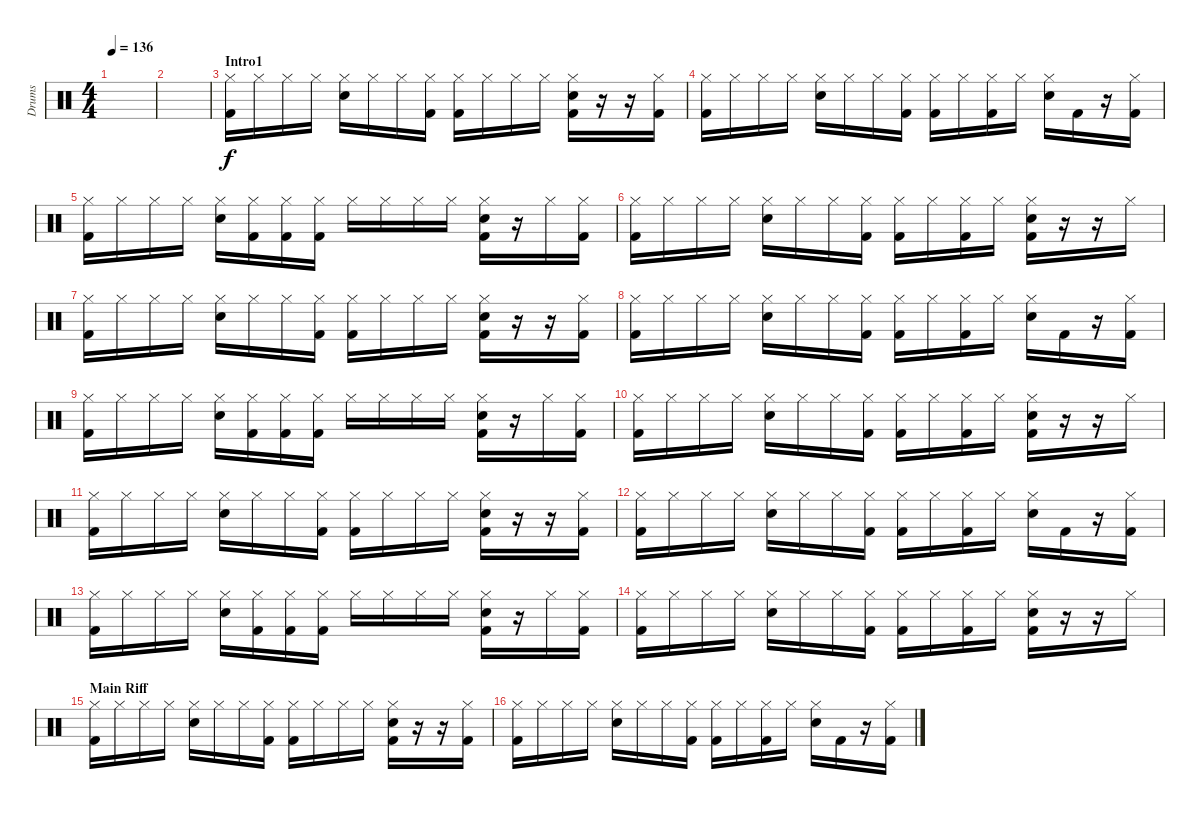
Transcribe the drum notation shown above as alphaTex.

\track ("Drums" "Drums") {instrument percussion}
\staff {score}
\articulation defaults
\ts (4 4)
\tempo 136
\clef neutral
\ks c
|
|
\section ("" "Intro1")
("Hi-Hat (closed)" "Kick (hit) 2").16{volume 4} "Hi-Hat (closed)".16 "Hi-Hat (closed)".16 "Hi-Hat (closed)".16 ("Electric Snare (hit)" "Hi-Hat (closed)").16 "Hi-Hat (closed)".16 "Hi-Hat (closed)".16 ("Hi-Hat (closed)" "Kick (hit) 2").16 ("Hi-Hat (closed)" "Kick (hit) 2").16 "Hi-Hat (closed)".16 "Hi-Hat (closed)".16 "Hi-Hat (closed)".16 ("Electric Snare (hit)" "Hi-Hat (closed)" "Kick (hit) 2").16 r.16 r.16 ("Hi-Hat (closed)" "Kick (hit) 2").16 |
("Hi-Hat (closed)" "Kick (hit) 2").16 "Hi-Hat (closed)".16 "Hi-Hat (closed)".16 "Hi-Hat (closed)".16 ("Electric Snare (hit)" "Hi-Hat (closed)").16 "Hi-Hat (closed)".16 "Hi-Hat (closed)".16 ("Hi-Hat (closed)" "Kick (hit) 2").16 ("Hi-Hat (closed)" "Kick (hit) 2").16 "Hi-Hat (closed)".16 ("Hi-Hat (closed)" "Kick (hit) 2").16 "Hi-Hat (closed)".16 ("Electric Snare (hit)" "Hi-Hat (closed)").16 "Kick (hit) 2".16 r.16 ("Hi-Hat (closed)" "Kick (hit) 2").16 |
("Hi-Hat (closed)" "Kick (hit) 2").16 "Hi-Hat (closed)".16 "Hi-Hat (closed)".16 "Hi-Hat (closed)".16 ("Electric Snare (hit)" "Hi-Hat (closed)").16 ("Hi-Hat (closed)" "Kick (hit) 2").16 ("Hi-Hat (closed)" "Kick (hit) 2").16 ("Hi-Hat (closed)" "Kick (hit) 2").16 "Hi-Hat (closed)".16 "Hi-Hat (closed)".16 "Hi-Hat (closed)".16 "Hi-Hat (closed)".16 ("Electric Snare (hit)" "Hi-Hat (closed)" "Kick (hit) 2").16 r.16 "Hi-Hat (closed)".16 ("Hi-Hat (closed)" "Kick (hit) 2").16 |
("Hi-Hat (closed)" "Kick (hit) 2").16 "Hi-Hat (closed)".16 "Hi-Hat (closed)".16 "Hi-Hat (closed)".16 ("Electric Snare (hit)" "Hi-Hat (closed)").16 "Hi-Hat (closed)".16 "Hi-Hat (closed)".16 ("Hi-Hat (closed)" "Kick (hit) 2").16 ("Hi-Hat (closed)" "Kick (hit) 2").16 "Hi-Hat (closed)".16 ("Hi-Hat (closed)" "Kick (hit) 2").16 "Hi-Hat (closed)".16 ("Electric Snare (hit)" "Hi-Hat (closed)" "Kick (hit) 2").16 r.16 r.16 "Hi-Hat (closed)".16 |
("Hi-Hat (closed)" "Kick (hit) 2").16{volume 7} "Hi-Hat (closed)".16 "Hi-Hat (closed)".16 "Hi-Hat (closed)".16 ("Electric Snare (hit)" "Hi-Hat (closed)").16 "Hi-Hat (closed)".16 "Hi-Hat (closed)".16 ("Hi-Hat (closed)" "Kick (hit) 2").16 ("Hi-Hat (closed)" "Kick (hit) 2").16 "Hi-Hat (closed)".16 "Hi-Hat (closed)".16 "Hi-Hat (closed)".16 ("Electric Snare (hit)" "Hi-Hat (closed)" "Kick (hit) 2").16 r.16 r.16 ("Hi-Hat (closed)" "Kick (hit) 2").16 |
("Hi-Hat (closed)" "Kick (hit) 2").16 "Hi-Hat (closed)".16 "Hi-Hat (closed)".16 "Hi-Hat (closed)".16 ("Electric Snare (hit)" "Hi-Hat (closed)").16 "Hi-Hat (closed)".16 "Hi-Hat (closed)".16 ("Hi-Hat (closed)" "Kick (hit) 2").16 ("Hi-Hat (closed)" "Kick (hit) 2").16 "Hi-Hat (closed)".16 ("Hi-Hat (closed)" "Kick (hit) 2").16 "Hi-Hat (closed)".16 ("Electric Snare (hit)" "Hi-Hat (closed)").16 "Kick (hit) 2".16 r.16 ("Hi-Hat (closed)" "Kick (hit) 2").16 |
("Hi-Hat (closed)" "Kick (hit) 2").16 "Hi-Hat (closed)".16 "Hi-Hat (closed)".16 "Hi-Hat (closed)".16 ("Electric Snare (hit)" "Hi-Hat (closed)").16 ("Hi-Hat (closed)" "Kick (hit) 2").16 ("Hi-Hat (closed)" "Kick (hit) 2").16 ("Hi-Hat (closed)" "Kick (hit) 2").16 "Hi-Hat (closed)".16 "Hi-Hat (closed)".16 "Hi-Hat (closed)".16 "Hi-Hat (closed)".16 ("Electric Snare (hit)" "Hi-Hat (closed)" "Kick (hit) 2").16 r.16 "Hi-Hat (closed)".16 ("Hi-Hat (closed)" "Kick (hit) 2").16 |
("Hi-Hat (closed)" "Kick (hit) 2").16 "Hi-Hat (closed)".16 "Hi-Hat (closed)".16 "Hi-Hat (closed)".16 ("Electric Snare (hit)" "Hi-Hat (closed)").16 "Hi-Hat (closed)".16 "Hi-Hat (closed)".16 ("Hi-Hat (closed)" "Kick (hit) 2").16 ("Hi-Hat (closed)" "Kick (hit) 2").16 "Hi-Hat (closed)".16 ("Hi-Hat (closed)" "Kick (hit) 2").16 "Hi-Hat (closed)".16 ("Electric Snare (hit)" "Hi-Hat (closed)" "Kick (hit) 2").16 r.16 r.16 "Hi-Hat (closed)".16 |
("Hi-Hat (closed)" "Kick (hit) 2").16{volume 10} "Hi-Hat (closed)".16 "Hi-Hat (closed)".16 "Hi-Hat (closed)".16 ("Electric Snare (hit)" "Hi-Hat (closed)").16 "Hi-Hat (closed)".16 "Hi-Hat (closed)".16 ("Hi-Hat (closed)" "Kick (hit) 2").16 ("Hi-Hat (closed)" "Kick (hit) 2").16 "Hi-Hat (closed)".16 "Hi-Hat (closed)".16 "Hi-Hat (closed)".16 ("Electric Snare (hit)" "Hi-Hat (closed)" "Kick (hit) 2").16 r.16 r.16 ("Hi-Hat (closed)" "Kick (hit) 2").16 |
("Hi-Hat (closed)" "Kick (hit) 2").16 "Hi-Hat (closed)".16 "Hi-Hat (closed)".16 "Hi-Hat (closed)".16 ("Electric Snare (hit)" "Hi-Hat (closed)").16 "Hi-Hat (closed)".16 "Hi-Hat (closed)".16 ("Hi-Hat (closed)" "Kick (hit) 2").16 ("Hi-Hat (closed)" "Kick (hit) 2").16 "Hi-Hat (closed)".16 ("Hi-Hat (closed)" "Kick (hit) 2").16 "Hi-Hat (closed)".16 ("Electric Snare (hit)" "Hi-Hat (closed)").16 "Kick (hit) 2".16 r.16 ("Hi-Hat (closed)" "Kick (hit) 2").16 |
("Hi-Hat (closed)" "Kick (hit) 2").16 "Hi-Hat (closed)".16 "Hi-Hat (closed)".16 "Hi-Hat (closed)".16 ("Electric Snare (hit)" "Hi-Hat (closed)").16 ("Hi-Hat (closed)" "Kick (hit) 2").16 ("Hi-Hat (closed)" "Kick (hit) 2").16 ("Hi-Hat (closed)" "Kick (hit) 2").16 "Hi-Hat (closed)".16 "Hi-Hat (closed)".16 "Hi-Hat (closed)".16 "Hi-Hat (closed)".16 ("Electric Snare (hit)" "Hi-Hat (closed)" "Kick (hit) 2").16 r.16 "Hi-Hat (closed)".16 ("Hi-Hat (closed)" "Kick (hit) 2").16 |
("Hi-Hat (closed)" "Kick (hit) 2").16 "Hi-Hat (closed)".16 "Hi-Hat (closed)".16 "Hi-Hat (closed)".16 ("Electric Snare (hit)" "Hi-Hat (closed)").16 "Hi-Hat (closed)".16 "Hi-Hat (closed)".16 ("Hi-Hat (closed)" "Kick (hit) 2").16 ("Hi-Hat (closed)" "Kick (hit) 2").16 "Hi-Hat (closed)".16 ("Hi-Hat (closed)" "Kick (hit) 2").16 "Hi-Hat (closed)".16 ("Electric Snare (hit)" "Hi-Hat (closed)" "Kick (hit) 2").16 r.16 r.16 "Hi-Hat (closed)".16 |
\section ("" "Main Riff")
("Hi-Hat (closed)" "Kick (hit) 2").16{volume 12} "Hi-Hat (closed)".16 "Hi-Hat (closed)".16 "Hi-Hat (closed)".16 ("Electric Snare (hit)" "Hi-Hat (closed)").16 "Hi-Hat (closed)".16 "Hi-Hat (closed)".16 ("Hi-Hat (closed)" "Kick (hit) 2").16 ("Hi-Hat (closed)" "Kick (hit) 2").16 "Hi-Hat (closed)".16 "Hi-Hat (closed)".16 "Hi-Hat (closed)".16 ("Electric Snare (hit)" "Hi-Hat (closed)" "Kick (hit) 2").16 r.16 r.16 ("Hi-Hat (closed)" "Kick (hit) 2").16 |
("Hi-Hat (closed)" "Kick (hit) 2").16 "Hi-Hat (closed)".16 "Hi-Hat (closed)".16 "Hi-Hat (closed)".16 ("Electric Snare (hit)" "Hi-Hat (closed)").16 "Hi-Hat (closed)".16 "Hi-Hat (closed)".16 ("Hi-Hat (closed)" "Kick (hit) 2").16 ("Hi-Hat (closed)" "Kick (hit) 2").16 "Hi-Hat (closed)".16 ("Hi-Hat (closed)" "Kick (hit) 2").16 "Hi-Hat (closed)".16 ("Electric Snare (hit)" "Hi-Hat (closed)").16 "Kick (hit) 2".16 r.16 ("Hi-Hat (closed)" "Kick (hit) 2").16
